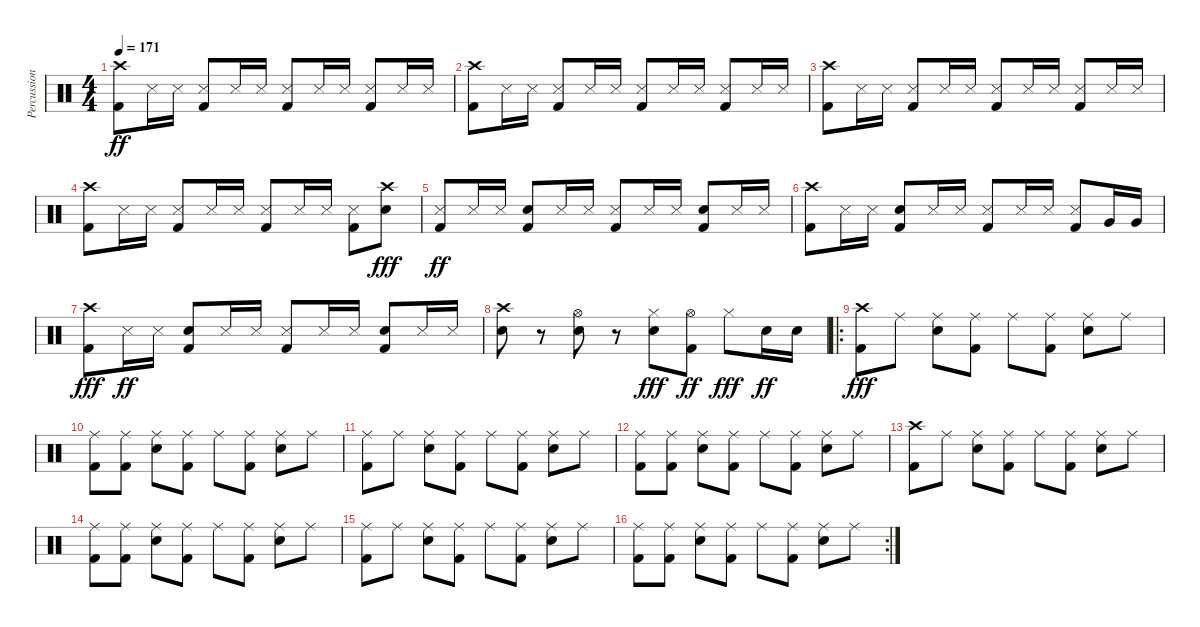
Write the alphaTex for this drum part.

\track ("Percussion" "Percussion") {instrument percussion}
\staff {score}
\articulation defaults
\ts (4 4)
\tempo 171
\clef neutral
\ks c
("Crash high (hit)" "Kick (hit) 2").8{dy ff} "Metronome (hit)".16 "Metronome (hit)".16 ("Metronome (hit)" "Kick (hit) 2").8 "Metronome (hit)".16 "Metronome (hit)".16 ("Metronome (hit)" "Kick (hit) 2").8 "Metronome (hit)".16 "Metronome (hit)".16 ("Metronome (hit)" "Kick (hit) 2").8 "Metronome (hit)".16 "Metronome (hit)".16 |
("Crash high (hit)" "Kick (hit) 2").8 "Metronome (hit)".16 "Metronome (hit)".16 ("Metronome (hit)" "Kick (hit) 2").8 "Metronome (hit)".16 "Metronome (hit)".16 ("Metronome (hit)" "Kick (hit) 2").8 "Metronome (hit)".16 "Metronome (hit)".16 ("Metronome (hit)" "Kick (hit) 2").8 "Metronome (hit)".16 "Metronome (hit)".16 |
("Crash high (hit)" "Kick (hit) 2").8 "Metronome (hit)".16 "Metronome (hit)".16 ("Metronome (hit)" "Kick (hit) 2").8 "Metronome (hit)".16 "Metronome (hit)".16 ("Metronome (hit)" "Kick (hit) 2").8 "Metronome (hit)".16 "Metronome (hit)".16 ("Metronome (hit)" "Kick (hit) 2").8 "Metronome (hit)".16 "Metronome (hit)".16 |
("Crash high (hit)" "Kick (hit) 2").8 "Metronome (hit)".16 "Metronome (hit)".16 ("Metronome (hit)" "Kick (hit) 2").8 "Metronome (hit)".16 "Metronome (hit)".16 ("Metronome (hit)" "Kick (hit) 2").8 "Metronome (hit)".16 "Metronome (hit)".16 ("Metronome (hit)" "Kick (hit) 2").8 ("Snare (hit) 2" "Crash high (hit)").8{dy fff} |
("Metronome (hit)" "Kick (hit) 2").8{dy ff} "Metronome (hit)".16 "Metronome (hit)".16 ("Snare (hit) 2" "Kick (hit) 2").8 "Metronome (hit)".16 "Metronome (hit)".16 ("Metronome (hit)" "Kick (hit) 2").8 "Metronome (hit)".16 "Metronome (hit)".16 ("Snare (hit) 2" "Kick (hit) 2").8 "Metronome (hit)".16 "Metronome (hit)".16 |
("Crash high (hit)" "Kick (hit) 2").8 "Metronome (hit)".16 "Metronome (hit)".16 ("Snare (hit) 2" "Kick (hit) 2").8 "Metronome (hit)".16 "Metronome (hit)".16 ("Metronome (hit)" "Kick (hit) 2").8 "Metronome (hit)".16 "Metronome (hit)".16 ("Metronome (hit)" "Kick (hit) 2").8 "Very Low Tom (hit)".16 "Very Low Tom (hit)".16 |
("Kick (hit) 2" "Crash high (hit)").8{dy fff} "Metronome (hit)".16{dy ff} "Metronome (hit)".16 ("Kick (hit) 2" "Snare (hit) 2").8 "Metronome (hit)".16 "Metronome (hit)".16 ("Kick (hit) 2" "Metronome (hit)").8 "Metronome (hit)".16 "Metronome (hit)".16 ("Kick (hit) 2" "Snare (hit) 2").8 "Metronome (hit)".16 "Metronome (hit)".16 |
("Crash high (hit)" "Snare (hit) 2").8 r.8 ("Hi-Hat (open)" "Snare (hit) 2").8 r.8 ("Hi-Hat (closed)" "Snare (hit) 2").8{dy fff} ("Hi-Hat (open)" "Kick (hit) 2").8{dy ff} "Hi-Hat (closed)".8{dy fff} "Snare (hit) 2".16{dy ff} "Snare (hit) 2".16 |
\ro
("Kick (hit) 2" "Crash high (hit)").8{dy fff} "Ride (middle)".8 ("Snare (hit) 2" "Ride (middle)").8 ("Kick (hit) 2" "Ride (middle)").8 "Ride (middle)".8 ("Kick (hit) 2" "Ride (middle)").8 ("Snare (hit) 2" "Ride (middle)").8 "Ride (middle)".8 |
("Kick (hit) 2" "Ride (middle)").8 ("Kick (hit) 2" "Ride (middle)").8 ("Snare (hit) 2" "Ride (middle)").8 ("Kick (hit) 2" "Ride (middle)").8 "Ride (middle)".8 ("Kick (hit) 2" "Ride (middle)").8 ("Snare (hit) 2" "Ride (middle)").8 "Ride (middle)".8 |
("Kick (hit) 2" "Ride (middle)").8 "Ride (middle)".8 ("Snare (hit) 2" "Ride (middle)").8 ("Kick (hit) 2" "Ride (middle)").8 "Ride (middle)".8 ("Kick (hit) 2" "Ride (middle)").8 ("Snare (hit) 2" "Ride (middle)").8 "Ride (middle)".8 |
("Kick (hit) 2" "Ride (middle)").8 ("Kick (hit) 2" "Ride (middle)").8 ("Snare (hit) 2" "Ride (middle)").8 ("Kick (hit) 2" "Ride (middle)").8 "Ride (middle)".8 ("Kick (hit) 2" "Ride (middle)").8 ("Snare (hit) 2" "Ride (middle)").8 "Ride (middle)".8 |
("Kick (hit) 2" "Crash high (hit)").8 "Ride (middle)".8 ("Snare (hit) 2" "Ride (middle)").8 ("Kick (hit) 2" "Ride (middle)").8 "Ride (middle)".8 ("Kick (hit) 2" "Ride (middle)").8 ("Snare (hit) 2" "Ride (middle)").8 "Ride (middle)".8 |
("Kick (hit) 2" "Ride (middle)").8 ("Kick (hit) 2" "Ride (middle)").8 ("Snare (hit) 2" "Ride (middle)").8 ("Kick (hit) 2" "Ride (middle)").8 "Ride (middle)".8 ("Kick (hit) 2" "Ride (middle)").8 ("Snare (hit) 2" "Ride (middle)").8 "Ride (middle)".8 |
("Kick (hit) 2" "Ride (middle)").8 "Ride (middle)".8 ("Snare (hit) 2" "Ride (middle)").8 ("Kick (hit) 2" "Ride (middle)").8 "Ride (middle)".8 ("Kick (hit) 2" "Ride (middle)").8 ("Snare (hit) 2" "Ride (middle)").8 "Ride (middle)".8 |
\rc 2
("Kick (hit) 2" "Ride (middle)").8 ("Kick (hit) 2" "Ride (middle)").8 ("Snare (hit) 2" "Ride (middle)").8 ("Kick (hit) 2" "Ride (middle)").8 "Ride (middle)".8 ("Kick (hit) 2" "Ride (middle)").8 ("Snare (hit) 2" "Ride (middle)").8 "Ride (middle)".8
